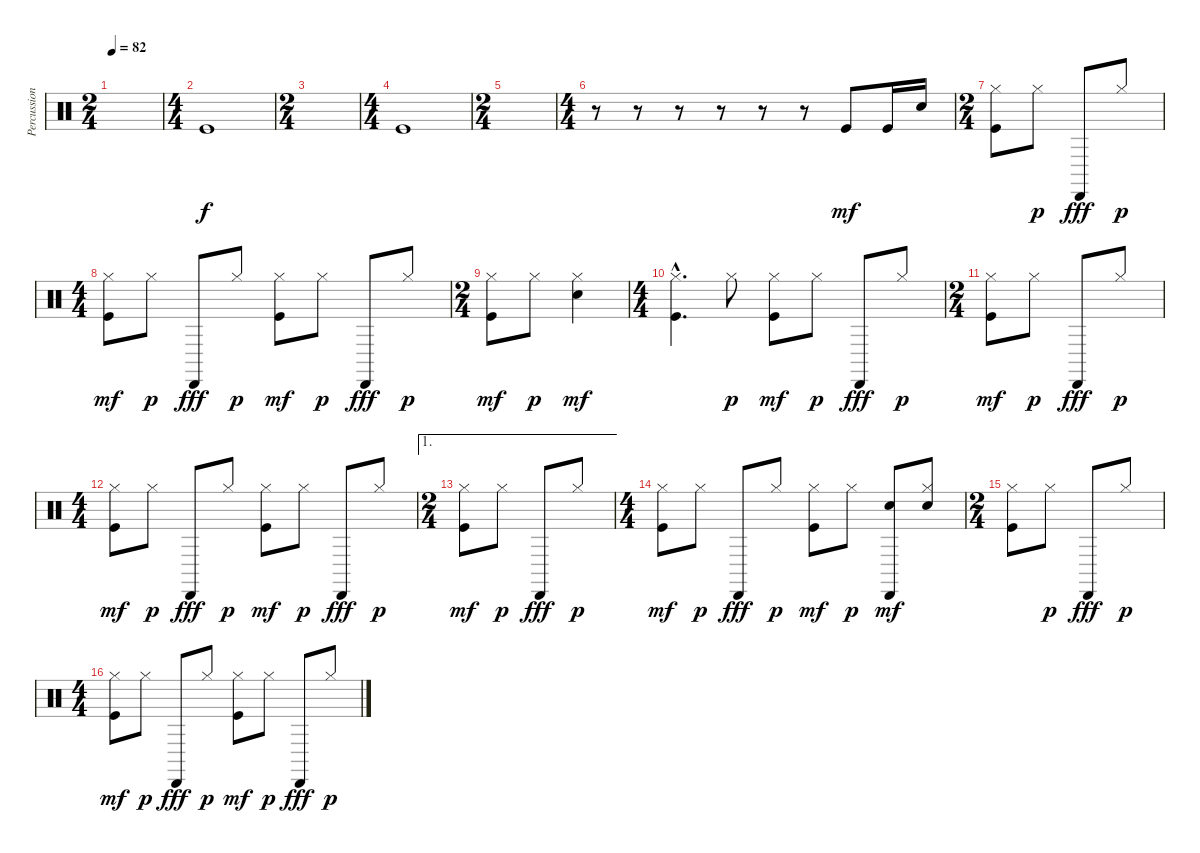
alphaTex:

\track ("Percussions" "Percussion") {instrument percussion}
\staff {score}
\articulation defaults
\ts (2 4)
\tempo 82
\clef neutral
\ks c
|
\ts (4 4)
"Kick (hit)".1 |
\ts (2 4)
|
\ts (4 4)
"Kick (hit)".1{dy f} |
\ts (2 4)
|
\ts (4 4)
r.8 r.8 r.8 r.8 r.8 r.8 "Kick (hit)".8{dy mf} "Kick (hit)".16 "Snare (hit) 2".16 |
\ts (2 4)
("Hi-Hat (closed)" "Kick (hit)").8 "Hi-Hat (closed)".8{dy p} "Cabasa (hit)".8{dy fff} "Hi-Hat (closed)".8{dy p} |
\ts (4 4)
("Hi-Hat (closed)" "Kick (hit)").8{dy mf} "Hi-Hat (closed)".8{dy p} "Cabasa (hit)".8{dy fff} "Hi-Hat (closed)".8{dy p} ("Hi-Hat (closed)" "Kick (hit)").8{dy mf} "Hi-Hat (closed)".8{dy p} "Cabasa (hit)".8{dy fff} "Hi-Hat (closed)".8{dy p} |
\ts (2 4)
("Hi-Hat (closed)" "Kick (hit)").8{dy mf} "Hi-Hat (closed)".8{dy p} ("Hi-Hat (closed)" "Snare (hit) 2").4{dy mf} |
\ts (4 4)
("Hi-Hat (closed)"{hac} "Kick (hit)"{hac}).4{d} "Hi-Hat (closed)".8{dy p} ("Hi-Hat (closed)" "Kick (hit)").8{dy mf} "Hi-Hat (closed)".8{dy p} "Cabasa (hit)".8{dy fff} "Hi-Hat (closed)".8{dy p} |
\ts (2 4)
("Hi-Hat (closed)" "Kick (hit)").8{dy mf} "Hi-Hat (closed)".8{dy p} "Cabasa (hit)".8{dy fff} "Hi-Hat (closed)".8{dy p} |
\ts (4 4)
("Hi-Hat (closed)" "Kick (hit)").8{dy mf} "Hi-Hat (closed)".8{dy p} "Cabasa (hit)".8{dy fff} "Hi-Hat (closed)".8{dy p} ("Hi-Hat (closed)" "Kick (hit)").8{dy mf} "Hi-Hat (closed)".8{dy p} "Cabasa (hit)".8{dy fff} "Hi-Hat (closed)".8{dy p} |
\ae 1
\ts (2 4)
("Hi-Hat (closed)" "Kick (hit)").8{dy mf} "Hi-Hat (closed)".8{dy p} "Cabasa (hit)".8{dy fff} "Hi-Hat (closed)".8{dy p} |
\ts (4 4)
("Hi-Hat (closed)" "Kick (hit)").8{dy mf} "Hi-Hat (closed)".8{dy p} "Cabasa (hit)".8{dy fff} "Hi-Hat (closed)".8{dy p} ("Hi-Hat (closed)" "Kick (hit)").8{dy mf} "Hi-Hat (closed)".8{dy p} ("Cabasa (hit)" "Snare (hit) 2").8{dy mf} ("Hi-Hat (closed)" "Snare (hit) 2").8 |
\ts (2 4)
("Hi-Hat (closed)" "Kick (hit)").8 "Hi-Hat (closed)".8{dy p} "Cabasa (hit)".8{dy fff} "Hi-Hat (closed)".8{dy p} |
\ts (4 4)
("Hi-Hat (closed)" "Kick (hit)").8{dy mf} "Hi-Hat (closed)".8{dy p} "Cabasa (hit)".8{dy fff} "Hi-Hat (closed)".8{dy p} ("Hi-Hat (closed)" "Kick (hit)").8{dy mf} "Hi-Hat (closed)".8{dy p} "Cabasa (hit)".8{dy fff} "Hi-Hat (closed)".8{dy p}
